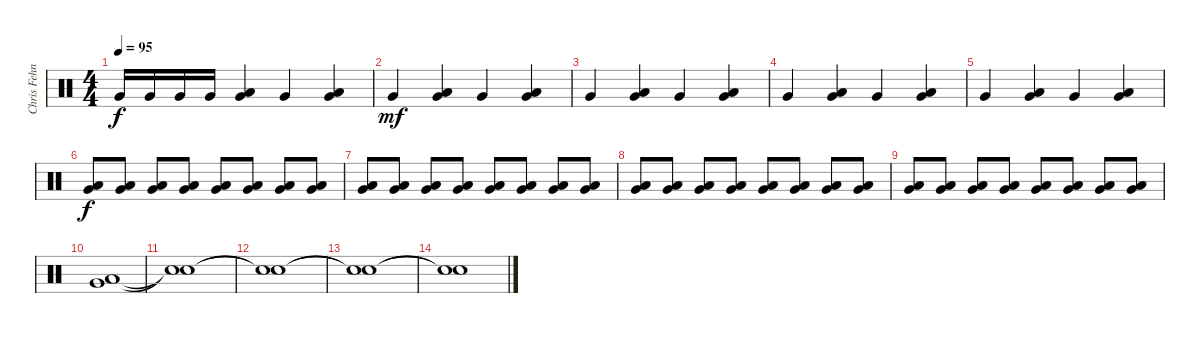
\track ("Chris Fehn" "Chris Fehn") {instrument percussion}
\staff {score}
\articulation defaults
\ts (4 4)
\tempo 95
\clef neutral
\ks c "Very Low Tom (hit)".16{dy f} "Very Low Tom (hit)".16 "Very Low Tom (hit)".16 "Very Low Tom (hit)".16
("Very Low Tom (hit)" "Low Floor Tom (hit)").4 "Very Low Tom (hit)".4 ("Very Low Tom (hit)" "Low Floor Tom (hit)").4 |
"Very Low Tom (hit)".4{dy mf} ("Very Low Tom (hit)" "Low Floor Tom (hit)").4 "Very Low Tom (hit)".4 ("Very Low Tom (hit)" "Low Floor Tom (hit)").4 |
"Very Low Tom (hit)".4 ("Very Low Tom (hit)" "Low Floor Tom (hit)").4 "Very Low Tom (hit)".4 ("Very Low Tom (hit)" "Low Floor Tom (hit)").4 |
"Very Low Tom (hit)".4 ("Very Low Tom (hit)" "Low Floor Tom (hit)").4 "Very Low Tom (hit)".4 ("Very Low Tom (hit)" "Low Floor Tom (hit)").4 |
"Very Low Tom (hit)".4 ("Very Low Tom (hit)" "Low Floor Tom (hit)").4 "Very Low Tom (hit)".4 ("Very Low Tom (hit)" "Low Floor Tom (hit)").4 |
("Very Low Tom (hit)" "Low Floor Tom (hit)").8{dy f} ("Very Low Tom (hit)" "Low Floor Tom (hit)").8 ("Very Low Tom (hit)" "Low Floor Tom (hit)").8 ("Very Low Tom (hit)" "Low Floor Tom (hit)").8 ("Very Low Tom (hit)" "Low Floor Tom (hit)").8 ("Very Low Tom (hit)" "Low Floor Tom (hit)").8 ("Very Low Tom (hit)" "Low Floor Tom (hit)").8 ("Very Low Tom (hit)" "Low Floor Tom (hit)").8 |
("Very Low Tom (hit)" "Low Floor Tom (hit)").8 ("Very Low Tom (hit)" "Low Floor Tom (hit)").8 ("Very Low Tom (hit)" "Low Floor Tom (hit)").8 ("Very Low Tom (hit)" "Low Floor Tom (hit)").8 ("Very Low Tom (hit)" "Low Floor Tom (hit)").8 ("Very Low Tom (hit)" "Low Floor Tom (hit)").8 ("Very Low Tom (hit)" "Low Floor Tom (hit)").8 ("Very Low Tom (hit)" "Low Floor Tom (hit)").8 |
("Very Low Tom (hit)" "Low Floor Tom (hit)").8 ("Very Low Tom (hit)" "Low Floor Tom (hit)").8 ("Very Low Tom (hit)" "Low Floor Tom (hit)").8 ("Very Low Tom (hit)" "Low Floor Tom (hit)").8 ("Very Low Tom (hit)" "Low Floor Tom (hit)").8 ("Very Low Tom (hit)" "Low Floor Tom (hit)").8 ("Very Low Tom (hit)" "Low Floor Tom (hit)").8 ("Very Low Tom (hit)" "Low Floor Tom (hit)").8 |
("Very Low Tom (hit)" "Low Floor Tom (hit)").8 ("Very Low Tom (hit)" "Low Floor Tom (hit)").8 ("Very Low Tom (hit)" "Low Floor Tom (hit)").8 ("Very Low Tom (hit)" "Low Floor Tom (hit)").8 ("Very Low Tom (hit)" "Low Floor Tom (hit)").8 ("Very Low Tom (hit)" "Low Floor Tom (hit)").8 ("Very Low Tom (hit)" "Low Floor Tom (hit)").8 ("Very Low Tom (hit)" "Low Floor Tom (hit)").8 |
("Very Low Tom (hit)" "Low Floor Tom (hit)").1 |
("Snare (hit)"{t} "Snare (hit)"{t}).1 |
("Snare (hit)"{t} "Snare (hit)"{t}).1 |
("Snare (hit)"{t} "Snare (hit)"{t}).1 |
("Snare (hit)"{t} "Snare (hit)"{t}).1
